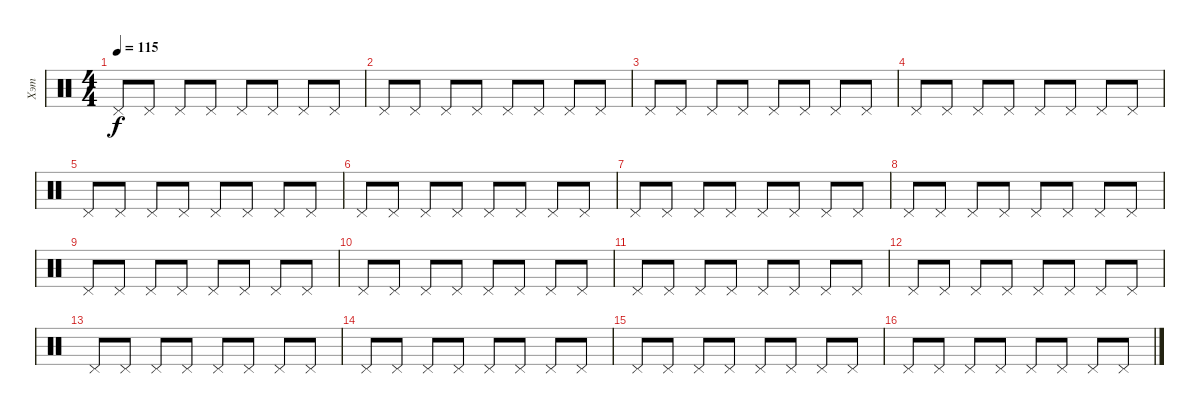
\track ("Хэт" "Хэт") {instrument percussion}
\staff {score}
\articulation defaults
\ts (4 4)
\tempo 115
\clef neutral
\ks c "Pedal Hi-Hat (hit)".8{dy f} "Pedal Hi-Hat (hit)".8 "Pedal Hi-Hat (hit)".8 "Pedal Hi-Hat (hit)".8 "Pedal Hi-Hat (hit)".8 "Pedal Hi-Hat (hit)".8 "Pedal Hi-Hat (hit)".8 "Pedal Hi-Hat (hit)".8
|
"Pedal Hi-Hat (hit)".8 "Pedal Hi-Hat (hit)".8 "Pedal Hi-Hat (hit)".8 "Pedal Hi-Hat (hit)".8 "Pedal Hi-Hat (hit)".8 "Pedal Hi-Hat (hit)".8 "Pedal Hi-Hat (hit)".8 "Pedal Hi-Hat (hit)".8 |
"Pedal Hi-Hat (hit)".8 "Pedal Hi-Hat (hit)".8 "Pedal Hi-Hat (hit)".8 "Pedal Hi-Hat (hit)".8 "Pedal Hi-Hat (hit)".8 "Pedal Hi-Hat (hit)".8 "Pedal Hi-Hat (hit)".8 "Pedal Hi-Hat (hit)".8 |
"Pedal Hi-Hat (hit)".8 "Pedal Hi-Hat (hit)".8 "Pedal Hi-Hat (hit)".8 "Pedal Hi-Hat (hit)".8 "Pedal Hi-Hat (hit)".8 "Pedal Hi-Hat (hit)".8 "Pedal Hi-Hat (hit)".8 "Pedal Hi-Hat (hit)".8 |
"Pedal Hi-Hat (hit)".8 "Pedal Hi-Hat (hit)".8 "Pedal Hi-Hat (hit)".8 "Pedal Hi-Hat (hit)".8 "Pedal Hi-Hat (hit)".8 "Pedal Hi-Hat (hit)".8 "Pedal Hi-Hat (hit)".8 "Pedal Hi-Hat (hit)".8 |
"Pedal Hi-Hat (hit)".8 "Pedal Hi-Hat (hit)".8 "Pedal Hi-Hat (hit)".8 "Pedal Hi-Hat (hit)".8 "Pedal Hi-Hat (hit)".8 "Pedal Hi-Hat (hit)".8 "Pedal Hi-Hat (hit)".8 "Pedal Hi-Hat (hit)".8 |
"Pedal Hi-Hat (hit)".8 "Pedal Hi-Hat (hit)".8 "Pedal Hi-Hat (hit)".8 "Pedal Hi-Hat (hit)".8 "Pedal Hi-Hat (hit)".8 "Pedal Hi-Hat (hit)".8 "Pedal Hi-Hat (hit)".8 "Pedal Hi-Hat (hit)".8 |
"Pedal Hi-Hat (hit)".8 "Pedal Hi-Hat (hit)".8 "Pedal Hi-Hat (hit)".8 "Pedal Hi-Hat (hit)".8 "Pedal Hi-Hat (hit)".8 "Pedal Hi-Hat (hit)".8 "Pedal Hi-Hat (hit)".8 "Pedal Hi-Hat (hit)".8 |
"Pedal Hi-Hat (hit)".8 "Pedal Hi-Hat (hit)".8 "Pedal Hi-Hat (hit)".8 "Pedal Hi-Hat (hit)".8 "Pedal Hi-Hat (hit)".8 "Pedal Hi-Hat (hit)".8 "Pedal Hi-Hat (hit)".8 "Pedal Hi-Hat (hit)".8 |
"Pedal Hi-Hat (hit)".8 "Pedal Hi-Hat (hit)".8 "Pedal Hi-Hat (hit)".8 "Pedal Hi-Hat (hit)".8 "Pedal Hi-Hat (hit)".8 "Pedal Hi-Hat (hit)".8 "Pedal Hi-Hat (hit)".8 "Pedal Hi-Hat (hit)".8 |
"Pedal Hi-Hat (hit)".8 "Pedal Hi-Hat (hit)".8 "Pedal Hi-Hat (hit)".8 "Pedal Hi-Hat (hit)".8 "Pedal Hi-Hat (hit)".8 "Pedal Hi-Hat (hit)".8 "Pedal Hi-Hat (hit)".8 "Pedal Hi-Hat (hit)".8 |
"Pedal Hi-Hat (hit)".8 "Pedal Hi-Hat (hit)".8 "Pedal Hi-Hat (hit)".8 "Pedal Hi-Hat (hit)".8 "Pedal Hi-Hat (hit)".8 "Pedal Hi-Hat (hit)".8 "Pedal Hi-Hat (hit)".8 "Pedal Hi-Hat (hit)".8 |
"Pedal Hi-Hat (hit)".8 "Pedal Hi-Hat (hit)".8 "Pedal Hi-Hat (hit)".8 "Pedal Hi-Hat (hit)".8 "Pedal Hi-Hat (hit)".8 "Pedal Hi-Hat (hit)".8 "Pedal Hi-Hat (hit)".8 "Pedal Hi-Hat (hit)".8 |
"Pedal Hi-Hat (hit)".8 "Pedal Hi-Hat (hit)".8 "Pedal Hi-Hat (hit)".8 "Pedal Hi-Hat (hit)".8 "Pedal Hi-Hat (hit)".8 "Pedal Hi-Hat (hit)".8 "Pedal Hi-Hat (hit)".8 "Pedal Hi-Hat (hit)".8 |
"Pedal Hi-Hat (hit)".8 "Pedal Hi-Hat (hit)".8 "Pedal Hi-Hat (hit)".8 "Pedal Hi-Hat (hit)".8 "Pedal Hi-Hat (hit)".8 "Pedal Hi-Hat (hit)".8 "Pedal Hi-Hat (hit)".8 "Pedal Hi-Hat (hit)".8 |
"Pedal Hi-Hat (hit)".8 "Pedal Hi-Hat (hit)".8 "Pedal Hi-Hat (hit)".8 "Pedal Hi-Hat (hit)".8 "Pedal Hi-Hat (hit)".8 "Pedal Hi-Hat (hit)".8 "Pedal Hi-Hat (hit)".8 "Pedal Hi-Hat (hit)".8
